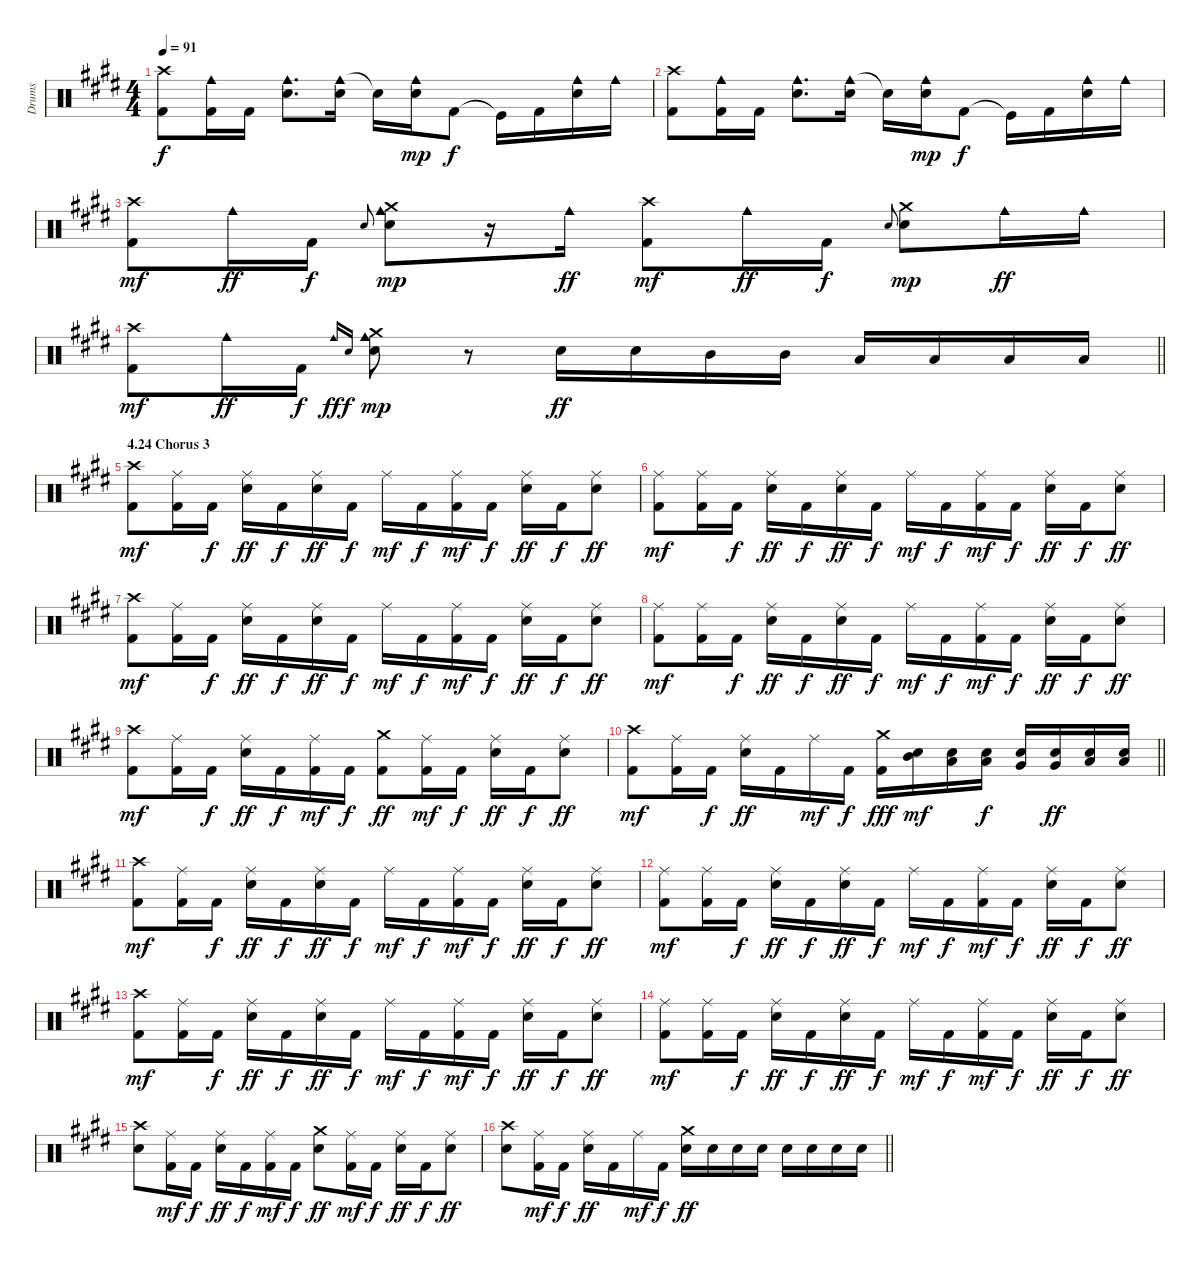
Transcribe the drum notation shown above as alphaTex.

\track ("Drums" "Drums") {instrument percussion}
\staff {score}
\articulation defaults
\ts (4 4)
\tempo 91
\clef neutral
\ks e
("Crash high (hit)" "Kick (hit) 2").8{dy f} ("Cowbell medium (hit)" "Kick (hit) 2").16 "Kick (hit) 2".16 ("Cowbell medium (hit)" "Snare (hit) 2").8{d} ("Cowbell medium (hit)" "Snare (hit) 2").16 "Snare (hit) 2"{t}.16 ("Cowbell medium (hit)" "Snare (hit) 2").16{dy mp} "Kick (hit) 2".8{dy f} "Kick (hit)"{t}.16 "Kick (hit) 2".16 ("Cowbell medium (hit)" "Snare (hit) 2").16 "Cowbell medium (hit)".16 |
("Crash high (hit)" "Kick (hit) 2").8 ("Cowbell medium (hit)" "Kick (hit) 2").16 "Kick (hit) 2".16 ("Cowbell medium (hit)" "Snare (hit) 2").8{d} ("Cowbell medium (hit)" "Snare (hit) 2").16 "Snare (hit) 2"{t}.16 ("Cowbell medium (hit)" "Snare (hit) 2").16{dy mp} "Kick (hit) 2".8{dy f} "Kick (hit)"{t}.16 "Kick (hit) 2".16 ("Cowbell medium (hit)" "Snare (hit) 2").16 "Cowbell medium (hit)".16 |
("Crash high (hit)" "Kick (hit) 2").8{dy mf} "Cowbell medium (hit)".16{dy ff} "Kick (hit) 2".16{dy f} "Snare (hit) 2".8{gr onbeat} ("Cowbell medium (hit)" "Crash medium (hit)" "Snare (hit) 2").8{dy mp} r.16 "Cowbell medium (hit)".16{dy ff} ("Crash high (hit)" "Kick (hit) 2").8{dy mf} "Cowbell medium (hit)".16{dy ff} "Kick (hit) 2".16{dy f} "Snare (hit) 2".8{gr onbeat} ("Crash medium (hit)" "Snare (hit) 2").8{dy mp} "Cowbell medium (hit)".16{dy ff} "Cowbell medium (hit)".16 |
\barLineRight lightlight
("Crash high (hit)" "Kick (hit) 2").8{dy mf} "Cowbell medium (hit)".16{dy ff} "Kick (hit) 2".16{dy f} "Cowbell medium (hit)".16{gr onbeat dy ff} "Snare (hit) 2".16{gr onbeat dy f} ("Cowbell medium (hit)" "Crash medium (hit)" "Snare (hit) 2").8{dy mp} r.8 "Snare (hit) 2".16{dy ff} "Snare (hit) 2".16 "Mid Tom (hit)".16 "Mid Tom (hit)".16 "Low Tom (hit)".16 "Low Tom (hit)".16 "Low Floor Tom (hit)".16 "Low Floor Tom (hit)".16 |
\section ("" "4.24 Chorus 3")
("Crash high (hit)" "Kick (hit) 2").8{dy mf} ("Ride (middle)" "Kick (hit) 2").16 "Kick (hit) 2".16{dy f} ("Ride (middle)" "Snare (hit) 2").16{dy ff} "Kick (hit) 2".16{dy f} ("Ride (middle)" "Snare (hit) 2").16{dy ff} "Kick (hit) 2".16{dy f} "Ride (middle)".16{dy mf} "Kick (hit) 2".16{dy f} ("Ride (middle)" "Kick (hit) 2").16{dy mf} "Kick (hit) 2".16{dy f} ("Ride (middle)" "Snare (hit) 2").16{dy ff} "Kick (hit) 2".16{dy f} ("Ride (middle)" "Snare (hit) 2").8{dy ff} |
("Ride (middle)" "Kick (hit) 2").8{dy mf} ("Ride (middle)" "Kick (hit) 2").16 "Kick (hit) 2".16{dy f} ("Ride (middle)" "Snare (hit) 2").16{dy ff} "Kick (hit) 2".16{dy f} ("Ride (middle)" "Snare (hit) 2").16{dy ff} "Kick (hit) 2".16{dy f} "Ride (middle)".16{dy mf} "Kick (hit) 2".16{dy f} ("Ride (middle)" "Kick (hit) 2").16{dy mf} "Kick (hit) 2".16{dy f} ("Ride (middle)" "Snare (hit) 2").16{dy ff} "Kick (hit) 2".16{dy f} ("Ride (middle)" "Snare (hit) 2").8{dy ff} |
("Crash high (hit)" "Kick (hit) 2").8{dy mf} ("Ride (middle)" "Kick (hit) 2").16 "Kick (hit) 2".16{dy f} ("Ride (middle)" "Snare (hit) 2").16{dy ff} "Kick (hit) 2".16{dy f} ("Ride (middle)" "Snare (hit) 2").16{dy ff} "Kick (hit) 2".16{dy f} "Ride (middle)".16{dy mf} "Kick (hit) 2".16{dy f} ("Ride (middle)" "Kick (hit) 2").16{dy mf} "Kick (hit) 2".16{dy f} ("Ride (middle)" "Snare (hit) 2").16{dy ff} "Kick (hit) 2".16{dy f} ("Ride (middle)" "Snare (hit) 2").8{dy ff} |
("Ride (middle)" "Kick (hit) 2").8{dy mf} ("Ride (middle)" "Kick (hit) 2").16 "Kick (hit) 2".16{dy f} ("Ride (middle)" "Snare (hit) 2").16{dy ff} "Kick (hit) 2".16{dy f} ("Ride (middle)" "Snare (hit) 2").16{dy ff} "Kick (hit) 2".16{dy f} "Ride (middle)".16{dy mf} "Kick (hit) 2".16{dy f} ("Ride (middle)" "Kick (hit) 2").16{dy mf} "Kick (hit) 2".16{dy f} ("Ride (middle)" "Snare (hit) 2").16{dy ff} "Kick (hit) 2".16{dy f} ("Ride (middle)" "Snare (hit) 2").8{dy ff} |
("Crash high (hit)" "Kick (hit) 2").8{dy mf} ("Ride (middle)" "Kick (hit) 2").16 "Kick (hit) 2".16{dy f} ("Ride (middle)" "Snare (hit) 2").16{dy ff} "Kick (hit) 2".16{dy f} ("Ride (middle)" "Kick (hit) 2").16{dy mf} "Kick (hit) 2".16{dy f} ("Crash medium (hit)" "Kick (hit) 2").8{dy ff} ("Ride (middle)" "Kick (hit) 2").16{dy mf} "Kick (hit) 2".16{dy f} ("Ride (middle)" "Snare (hit) 2").16{dy ff} "Kick (hit) 2".16{dy f} ("Ride (middle)" "Snare (hit) 2").8{dy ff} |
\barLineRight lightlight
("Crash high (hit)" "Kick (hit) 2").8{dy mf} ("Ride (middle)" "Kick (hit) 2").16 "Kick (hit) 2".16{dy f} ("Ride (middle)" "Snare (hit) 2").16{dy ff} "Kick (hit) 2".16 "Ride (middle)".16{dy mf} "Kick (hit) 2".16{dy f} ("Crash medium (hit)" "Kick (hit) 2").16{dy fff} ("Mid Tom (hit)" "Snare (hit) 2").16{dy mf} ("Low Tom (hit)" "Snare (hit) 2").16 ("Low Tom (hit)" "Snare (hit) 2").16{dy f} ("Very Low Tom (hit)" "Snare (hit) 2").16 ("Very Low Tom (hit)" "Snare (hit) 2").16{dy ff} ("Low Floor Tom (hit)" "Snare (hit) 2").16 ("Low Floor Tom (hit)" "Snare (hit) 2").16 |
("Crash high (hit)" "Kick (hit) 2").8{dy mf} ("Ride (middle)" "Kick (hit) 2").16 "Kick (hit) 2".16{dy f} ("Ride (middle)" "Snare (hit) 2").16{dy ff} "Kick (hit) 2".16{dy f} ("Ride (middle)" "Snare (hit) 2").16{dy ff} "Kick (hit) 2".16{dy f} "Ride (middle)".16{dy mf} "Kick (hit) 2".16{dy f} ("Ride (middle)" "Kick (hit) 2").16{dy mf} "Kick (hit) 2".16{dy f} ("Ride (middle)" "Snare (hit) 2").16{dy ff} "Kick (hit) 2".16{dy f} ("Ride (middle)" "Snare (hit) 2").8{dy ff} |
("Ride (middle)" "Kick (hit) 2").8{dy mf} ("Ride (middle)" "Kick (hit) 2").16 "Kick (hit) 2".16{dy f} ("Ride (middle)" "Snare (hit) 2").16{dy ff} "Kick (hit) 2".16{dy f} ("Ride (middle)" "Snare (hit) 2").16{dy ff} "Kick (hit) 2".16{dy f} "Ride (middle)".16{dy mf} "Kick (hit) 2".16{dy f} ("Ride (middle)" "Kick (hit) 2").16{dy mf} "Kick (hit) 2".16{dy f} ("Ride (middle)" "Snare (hit) 2").16{dy ff} "Kick (hit) 2".16{dy f} ("Ride (middle)" "Snare (hit) 2").8{dy ff} |
("Crash high (hit)" "Kick (hit) 2").8{dy mf} ("Ride (middle)" "Kick (hit) 2").16 "Kick (hit) 2".16{dy f} ("Ride (middle)" "Snare (hit) 2").16{dy ff} "Kick (hit) 2".16{dy f} ("Ride (middle)" "Snare (hit) 2").16{dy ff} "Kick (hit) 2".16{dy f} "Ride (middle)".16{dy mf} "Kick (hit) 2".16{dy f} ("Ride (middle)" "Kick (hit) 2").16{dy mf} "Kick (hit) 2".16{dy f} ("Ride (middle)" "Snare (hit) 2").16{dy ff} "Kick (hit) 2".16{dy f} ("Ride (middle)" "Snare (hit) 2").8{dy ff} |
("Ride (middle)" "Kick (hit) 2").8{dy mf} ("Ride (middle)" "Kick (hit) 2").16 "Kick (hit) 2".16{dy f} ("Ride (middle)" "Snare (hit) 2").16{dy ff} "Kick (hit) 2".16{dy f} ("Ride (middle)" "Snare (hit) 2").16{dy ff} "Kick (hit) 2".16{dy f} "Ride (middle)".16{dy mf} "Kick (hit) 2".16{dy f} ("Ride (middle)" "Kick (hit) 2").16{dy mf} "Kick (hit) 2".16{dy f} ("Ride (middle)" "Snare (hit) 2").16{dy ff} "Kick (hit) 2".16{dy f} ("Ride (middle)" "Snare (hit) 2").8{dy ff} |
("Crash high (hit)" "Snare (hit) 2").8 ("Ride (middle)" "Kick (hit) 2").16{dy mf} "Kick (hit) 2".16{dy f} ("Ride (middle)" "Snare (hit) 2").16{dy ff} "Kick (hit) 2".16{dy f} ("Ride (middle)" "Kick (hit) 2").16{dy mf} "Kick (hit) 2".16{dy f} ("Crash medium (hit)" "Snare (hit) 2").8{dy ff} ("Ride (middle)" "Kick (hit) 2").16{dy mf} "Kick (hit) 2".16{dy f} ("Ride (middle)" "Snare (hit) 2").16{dy ff} "Kick (hit) 2".16{dy f} ("Ride (middle)" "Snare (hit) 2").8{dy ff} |
\barLineRight lightlight
("Crash high (hit)" "Snare (hit) 2").8 ("Ride (middle)" "Kick (hit) 2").16{dy mf} "Kick (hit) 2".16{dy f} ("Ride (middle)" "Snare (hit) 2").16{dy ff} "Kick (hit) 2".16 "Ride (middle)".16{dy mf} "Kick (hit) 2".16{dy f} ("Crash medium (hit)" "Snare (hit) 2").16{dy ff} "Snare (hit) 2".16 "Snare (hit) 2".16 "Snare (hit) 2".16 "Snare (hit) 2".16 "Snare (hit) 2".16 "Snare (hit) 2".16 "Snare (hit) 2".16
